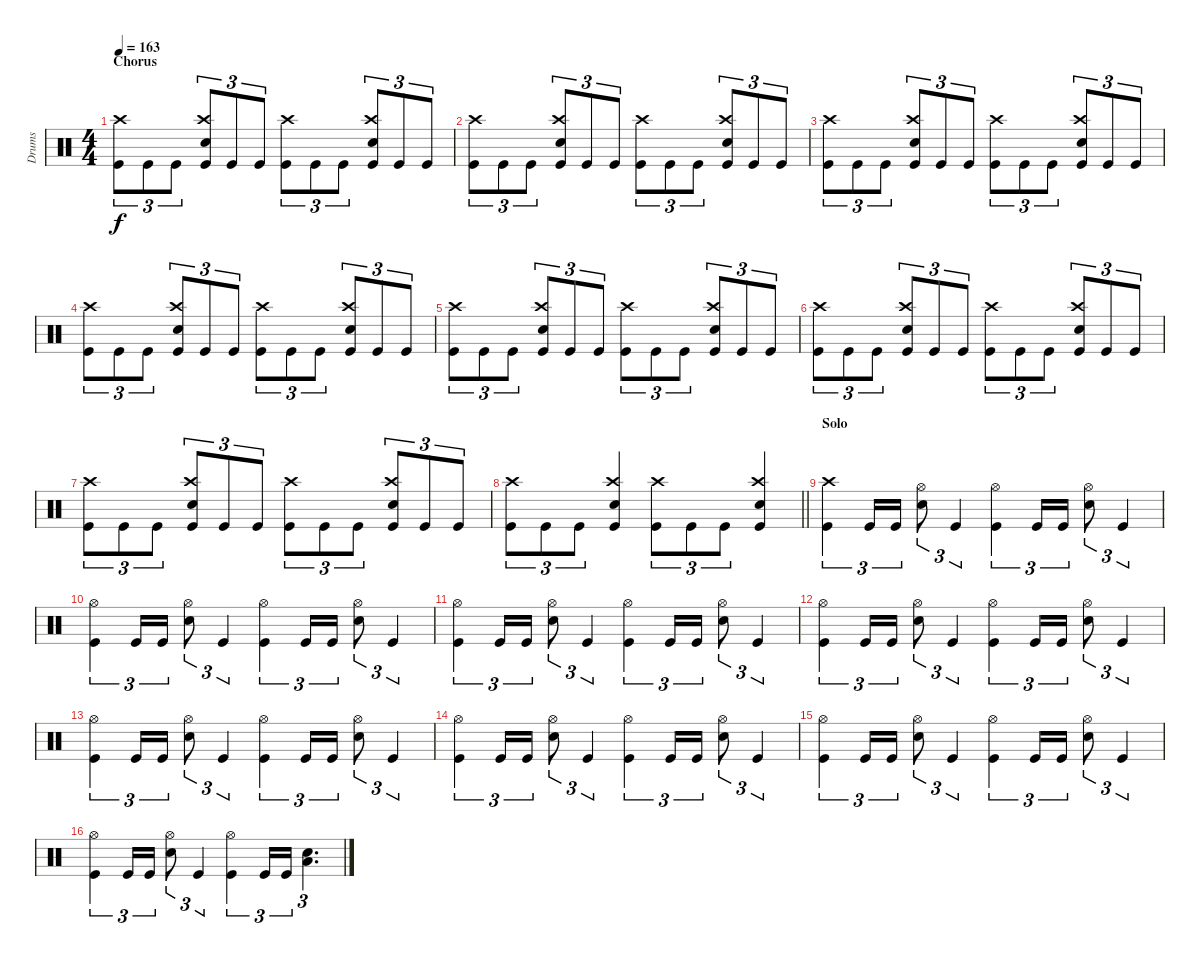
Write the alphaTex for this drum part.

\track ("Drums" "Drums") {instrument percussion}
\staff {score}
\articulation defaults
\ts (4 4)
\section ("" "Chorus")
\tempo 163
\clef neutral
\ks c
("Kick (hit)" "Crash high (hit)").8{tu (3 2) dy f} "Kick (hit)".8{tu (3 2)} "Kick (hit)".8{tu (3 2)} ("Kick (hit)" "Snare (hit) 2" "Crash high (hit)").8{tu (3 2)} "Kick (hit)".8{tu (3 2)} "Kick (hit)".8{tu (3 2)} ("Kick (hit)" "Crash high (hit)").8{tu (3 2)} "Kick (hit)".8{tu (3 2)} "Kick (hit)".8{tu (3 2)} ("Kick (hit)" "Snare (hit) 2" "Crash high (hit)").8{tu (3 2)} "Kick (hit)".8{tu (3 2)} "Kick (hit)".8{tu (3 2)} |
("Kick (hit)" "Crash high (hit)").8{tu (3 2)} "Kick (hit)".8{tu (3 2)} "Kick (hit)".8{tu (3 2)} ("Kick (hit)" "Snare (hit) 2" "Crash high (hit)").8{tu (3 2)} "Kick (hit)".8{tu (3 2)} "Kick (hit)".8{tu (3 2)} ("Kick (hit)" "Crash high (hit)").8{tu (3 2)} "Kick (hit)".8{tu (3 2)} "Kick (hit)".8{tu (3 2)} ("Kick (hit)" "Snare (hit) 2" "Crash high (hit)").8{tu (3 2)} "Kick (hit)".8{tu (3 2)} "Kick (hit)".8{tu (3 2)} |
("Kick (hit)" "Crash high (hit)").8{tu (3 2)} "Kick (hit)".8{tu (3 2)} "Kick (hit)".8{tu (3 2)} ("Kick (hit)" "Snare (hit) 2" "Crash high (hit)").8{tu (3 2)} "Kick (hit)".8{tu (3 2)} "Kick (hit)".8{tu (3 2)} ("Kick (hit)" "Crash high (hit)").8{tu (3 2)} "Kick (hit)".8{tu (3 2)} "Kick (hit)".8{tu (3 2)} ("Kick (hit)" "Snare (hit) 2" "Crash high (hit)").8{tu (3 2)} "Kick (hit)".8{tu (3 2)} "Kick (hit)".8{tu (3 2)} |
("Kick (hit)" "Crash high (hit)").8{tu (3 2)} "Kick (hit)".8{tu (3 2)} "Kick (hit)".8{tu (3 2)} ("Kick (hit)" "Snare (hit) 2" "Crash high (hit)").8{tu (3 2)} "Kick (hit)".8{tu (3 2)} "Kick (hit)".8{tu (3 2)} ("Kick (hit)" "Crash high (hit)").8{tu (3 2)} "Kick (hit)".8{tu (3 2)} "Kick (hit)".8{tu (3 2)} ("Kick (hit)" "Snare (hit) 2" "Crash high (hit)").8{tu (3 2)} "Kick (hit)".8{tu (3 2)} "Kick (hit)".8{tu (3 2)} |
("Kick (hit)" "Crash high (hit)").8{tu (3 2)} "Kick (hit)".8{tu (3 2)} "Kick (hit)".8{tu (3 2)} ("Kick (hit)" "Snare (hit) 2" "Crash high (hit)").8{tu (3 2)} "Kick (hit)".8{tu (3 2)} "Kick (hit)".8{tu (3 2)} ("Kick (hit)" "Crash high (hit)").8{tu (3 2)} "Kick (hit)".8{tu (3 2)} "Kick (hit)".8{tu (3 2)} ("Kick (hit)" "Snare (hit) 2" "Crash high (hit)").8{tu (3 2)} "Kick (hit)".8{tu (3 2)} "Kick (hit)".8{tu (3 2)} |
("Kick (hit)" "Crash high (hit)").8{tu (3 2)} "Kick (hit)".8{tu (3 2)} "Kick (hit)".8{tu (3 2)} ("Kick (hit)" "Snare (hit) 2" "Crash high (hit)").8{tu (3 2)} "Kick (hit)".8{tu (3 2)} "Kick (hit)".8{tu (3 2)} ("Kick (hit)" "Crash high (hit)").8{tu (3 2)} "Kick (hit)".8{tu (3 2)} "Kick (hit)".8{tu (3 2)} ("Kick (hit)" "Snare (hit) 2" "Crash high (hit)").8{tu (3 2)} "Kick (hit)".8{tu (3 2)} "Kick (hit)".8{tu (3 2)} |
("Kick (hit)" "Crash high (hit)").8{tu (3 2)} "Kick (hit)".8{tu (3 2)} "Kick (hit)".8{tu (3 2)} ("Kick (hit)" "Snare (hit) 2" "Crash high (hit)").8{tu (3 2)} "Kick (hit)".8{tu (3 2)} "Kick (hit)".8{tu (3 2)} ("Kick (hit)" "Crash high (hit)").8{tu (3 2)} "Kick (hit)".8{tu (3 2)} "Kick (hit)".8{tu (3 2)} ("Kick (hit)" "Snare (hit) 2" "Crash high (hit)").8{tu (3 2)} "Kick (hit)".8{tu (3 2)} "Kick (hit)".8{tu (3 2)} |
\barLineRight lightlight
("Kick (hit)" "Crash high (hit)").8{tu (3 2)} "Kick (hit)".8{tu (3 2)} "Kick (hit)".8{tu (3 2)} ("Kick (hit)" "Snare (hit) 2" "Crash high (hit)").4 ("Kick (hit)" "Crash high (hit)").8{tu (3 2)} "Kick (hit)".8{tu (3 2)} "Kick (hit)".8{tu (3 2)} ("Kick (hit)" "Snare (hit) 2" "Crash high (hit)").4 |
\section ("" "Solo")
("Kick (hit)" "Crash high (hit)").4{tu (3 2)} "Kick (hit)".16{tu (3 2)} "Kick (hit)".16{tu (3 2)} ("Snare (hit) 2" "Hi-Hat (open)").8{tu (3 2)} "Kick (hit)".4{tu (3 2)} ("Kick (hit)" "Hi-Hat (open)").4{tu (3 2)} "Kick (hit)".16{tu (3 2)} "Kick (hit)".16{tu (3 2)} ("Snare (hit) 2" "Hi-Hat (open)").8{tu (3 2)} "Kick (hit)".4{tu (3 2)} |
("Kick (hit)" "Hi-Hat (open)").4{tu (3 2)} "Kick (hit)".16{tu (3 2)} "Kick (hit)".16{tu (3 2)} ("Snare (hit) 2" "Hi-Hat (open)").8{tu (3 2)} "Kick (hit)".4{tu (3 2)} ("Kick (hit)" "Hi-Hat (open)").4{tu (3 2)} "Kick (hit)".16{tu (3 2)} "Kick (hit)".16{tu (3 2)} ("Snare (hit) 2" "Hi-Hat (open)").8{tu (3 2)} "Kick (hit)".4{tu (3 2)} |
("Kick (hit)" "Hi-Hat (open)").4{tu (3 2)} "Kick (hit)".16{tu (3 2)} "Kick (hit)".16{tu (3 2)} ("Snare (hit) 2" "Hi-Hat (open)").8{tu (3 2)} "Kick (hit)".4{tu (3 2)} ("Kick (hit)" "Hi-Hat (open)").4{tu (3 2)} "Kick (hit)".16{tu (3 2)} "Kick (hit)".16{tu (3 2)} ("Snare (hit) 2" "Hi-Hat (open)").8{tu (3 2)} "Kick (hit)".4{tu (3 2)} |
("Kick (hit)" "Hi-Hat (open)").4{tu (3 2)} "Kick (hit)".16{tu (3 2)} "Kick (hit)".16{tu (3 2)} ("Snare (hit) 2" "Hi-Hat (open)").8{tu (3 2)} "Kick (hit)".4{tu (3 2)} ("Kick (hit)" "Hi-Hat (open)").4{tu (3 2)} "Kick (hit)".16{tu (3 2)} "Kick (hit)".16{tu (3 2)} ("Snare (hit) 2" "Hi-Hat (open)").8{tu (3 2)} "Kick (hit)".4{tu (3 2)} |
("Kick (hit)" "Hi-Hat (open)").4{tu (3 2)} "Kick (hit)".16{tu (3 2)} "Kick (hit)".16{tu (3 2)} ("Snare (hit) 2" "Hi-Hat (open)").8{tu (3 2)} "Kick (hit)".4{tu (3 2)} ("Kick (hit)" "Hi-Hat (open)").4{tu (3 2)} "Kick (hit)".16{tu (3 2)} "Kick (hit)".16{tu (3 2)} ("Snare (hit) 2" "Hi-Hat (open)").8{tu (3 2)} "Kick (hit)".4{tu (3 2)} |
("Kick (hit)" "Hi-Hat (open)").4{tu (3 2)} "Kick (hit)".16{tu (3 2)} "Kick (hit)".16{tu (3 2)} ("Snare (hit) 2" "Hi-Hat (open)").8{tu (3 2)} "Kick (hit)".4{tu (3 2)} ("Kick (hit)" "Hi-Hat (open)").4{tu (3 2)} "Kick (hit)".16{tu (3 2)} "Kick (hit)".16{tu (3 2)} ("Snare (hit) 2" "Hi-Hat (open)").8{tu (3 2)} "Kick (hit)".4{tu (3 2)} |
("Kick (hit)" "Hi-Hat (open)").4{tu (3 2)} "Kick (hit)".16{tu (3 2)} "Kick (hit)".16{tu (3 2)} ("Snare (hit) 2" "Hi-Hat (open)").8{tu (3 2)} "Kick (hit)".4{tu (3 2)} ("Kick (hit)" "Hi-Hat (open)").4{tu (3 2)} "Kick (hit)".16{tu (3 2)} "Kick (hit)".16{tu (3 2)} ("Snare (hit) 2" "Hi-Hat (open)").8{tu (3 2)} "Kick (hit)".4{tu (3 2)} |
("Kick (hit)" "Hi-Hat (open)").4{tu (3 2)} "Kick (hit)".16{tu (3 2)} "Kick (hit)".16{tu (3 2)} ("Snare (hit) 2" "Hi-Hat (open)").8{tu (3 2)} "Kick (hit)".4{tu (3 2)} ("Kick (hit)" "Hi-Hat (open)").4{tu (3 2)} "Kick (hit)".16{tu (3 2)} "Kick (hit)".16{tu (3 2)} ("Snare (hit) 2" "Low Floor Tom (hit)").4{d tu (3 2)}
